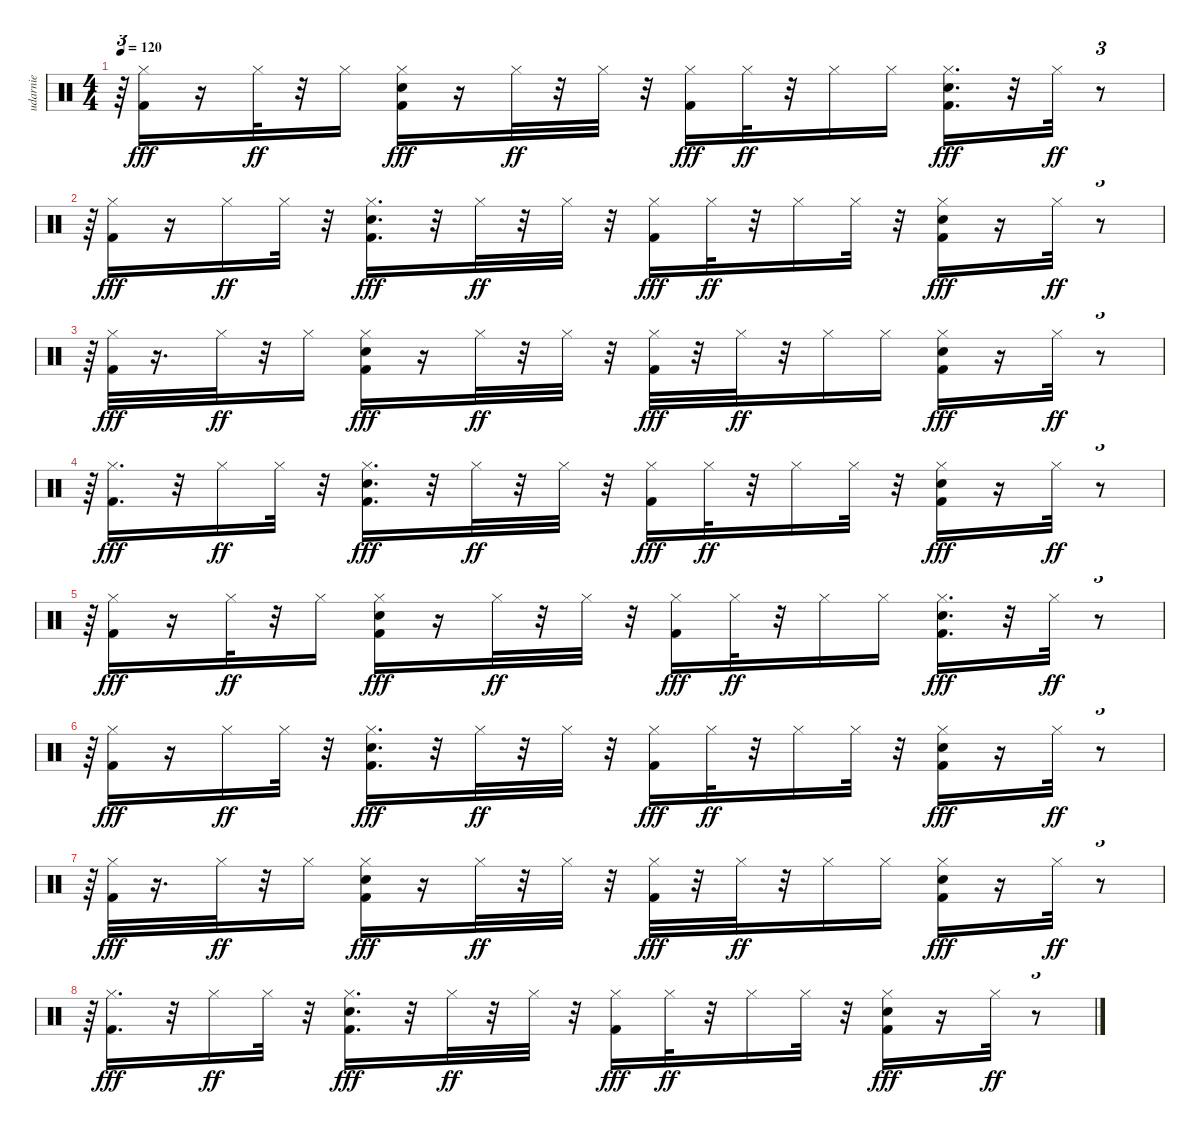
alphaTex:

\track ("udarnie" "udarnie") {instrument percussion}
\staff {score}
\articulation defaults
\ts (4 4)
\tempo 120
\clef neutral
\ks c
r.64{tu (3 2) dy ff} ("Hi-Hat (closed)" "Kick (hit) 2").16{dy fff} r.16 "Hi-Hat (closed)".32{dy ff} r.32 "Hi-Hat (closed)".16 ("Hi-Hat (closed)" "Electric Snare (hit)" "Kick (hit) 2").16{dy fff} r.16 "Hi-Hat (closed)".32{dy ff} r.32 "Hi-Hat (closed)".32 r.32 ("Hi-Hat (closed)" "Kick (hit) 2").16{dy fff} "Hi-Hat (closed)".32{dy ff} r.32 "Hi-Hat (closed)".16 "Hi-Hat (closed)".16 ("Hi-Hat (closed)" "Electric Snare (hit)" "Kick (hit) 2").16{d dy fff} r.32 "Hi-Hat (closed)".32{dy ff} r.8{tu (3 2)} |
r.64{tu (3 2)} ("Hi-Hat (closed)" "Kick (hit) 2").16{dy fff} r.16 "Hi-Hat (closed)".16{dy ff} "Hi-Hat (closed)".32 r.32 ("Hi-Hat (closed)" "Electric Snare (hit)" "Kick (hit) 2").16{d dy fff} r.32 "Hi-Hat (closed)".32{dy ff} r.32 "Hi-Hat (closed)".32 r.32 ("Hi-Hat (closed)" "Kick (hit) 2").16{dy fff} "Hi-Hat (closed)".32{dy ff} r.32 "Hi-Hat (closed)".16 "Hi-Hat (closed)".32 r.32 ("Hi-Hat (closed)" "Electric Snare (hit)" "Kick (hit) 2").16{dy fff} r.16 "Hi-Hat (closed)".32{dy ff} r.8{tu (3 2)} |
r.64{tu (3 2)} ("Hi-Hat (closed)" "Kick (hit) 2").32{dy fff} r.16{d} "Hi-Hat (closed)".32{dy ff} r.32 "Hi-Hat (closed)".16 ("Hi-Hat (closed)" "Electric Snare (hit)" "Kick (hit) 2").16{dy fff} r.16 "Hi-Hat (closed)".32{dy ff} r.32 "Hi-Hat (closed)".32 r.32 ("Hi-Hat (closed)" "Kick (hit) 2").32{dy fff} r.32 "Hi-Hat (closed)".32{dy ff} r.32 "Hi-Hat (closed)".16 "Hi-Hat (closed)".16 ("Hi-Hat (closed)" "Electric Snare (hit)" "Kick (hit) 2").16{dy fff} r.16 "Hi-Hat (closed)".32{dy ff} r.8{tu (3 2)} |
r.64{tu (3 2)} ("Hi-Hat (closed)" "Kick (hit) 2").16{d dy fff} r.32 "Hi-Hat (closed)".16{dy ff} "Hi-Hat (closed)".32 r.32 ("Hi-Hat (closed)" "Electric Snare (hit)" "Kick (hit) 2").16{d dy fff} r.32 "Hi-Hat (closed)".32{dy ff} r.32 "Hi-Hat (closed)".32 r.32 ("Hi-Hat (closed)" "Kick (hit) 2").16{dy fff} "Hi-Hat (closed)".32{dy ff} r.32 "Hi-Hat (closed)".16 "Hi-Hat (closed)".32 r.32 ("Hi-Hat (closed)" "Electric Snare (hit)" "Kick (hit) 2").16{dy fff} r.16 "Hi-Hat (closed)".32{dy ff} r.8{tu (3 2)} |
r.64{tu (3 2)} ("Hi-Hat (closed)" "Kick (hit) 2").16{dy fff} r.16 "Hi-Hat (closed)".32{dy ff} r.32 "Hi-Hat (closed)".16 ("Hi-Hat (closed)" "Electric Snare (hit)" "Kick (hit) 2").16{dy fff} r.16 "Hi-Hat (closed)".32{dy ff} r.32 "Hi-Hat (closed)".32 r.32 ("Hi-Hat (closed)" "Kick (hit) 2").16{dy fff} "Hi-Hat (closed)".32{dy ff} r.32 "Hi-Hat (closed)".16 "Hi-Hat (closed)".16 ("Hi-Hat (closed)" "Electric Snare (hit)" "Kick (hit) 2").16{d dy fff} r.32 "Hi-Hat (closed)".32{dy ff} r.8{tu (3 2)} |
r.64{tu (3 2)} ("Hi-Hat (closed)" "Kick (hit) 2").16{dy fff} r.16 "Hi-Hat (closed)".16{dy ff} "Hi-Hat (closed)".32 r.32 ("Hi-Hat (closed)" "Electric Snare (hit)" "Kick (hit) 2").16{d dy fff} r.32 "Hi-Hat (closed)".32{dy ff} r.32 "Hi-Hat (closed)".32 r.32 ("Hi-Hat (closed)" "Kick (hit) 2").16{dy fff} "Hi-Hat (closed)".32{dy ff} r.32 "Hi-Hat (closed)".16 "Hi-Hat (closed)".32 r.32 ("Hi-Hat (closed)" "Electric Snare (hit)" "Kick (hit) 2").16{dy fff} r.16 "Hi-Hat (closed)".32{dy ff} r.8{tu (3 2)} |
r.64{tu (3 2)} ("Hi-Hat (closed)" "Kick (hit) 2").32{dy fff} r.16{d} "Hi-Hat (closed)".32{dy ff} r.32 "Hi-Hat (closed)".16 ("Hi-Hat (closed)" "Electric Snare (hit)" "Kick (hit) 2").16{dy fff} r.16 "Hi-Hat (closed)".32{dy ff} r.32 "Hi-Hat (closed)".32 r.32 ("Hi-Hat (closed)" "Kick (hit) 2").32{dy fff} r.32 "Hi-Hat (closed)".32{dy ff} r.32 "Hi-Hat (closed)".16 "Hi-Hat (closed)".16 ("Hi-Hat (closed)" "Electric Snare (hit)" "Kick (hit) 2").16{dy fff} r.16 "Hi-Hat (closed)".32{dy ff} r.8{tu (3 2)} |
r.64{tu (3 2)} ("Hi-Hat (closed)" "Kick (hit) 2").16{d dy fff} r.32 "Hi-Hat (closed)".16{dy ff} "Hi-Hat (closed)".32 r.32 ("Hi-Hat (closed)" "Electric Snare (hit)" "Kick (hit) 2").16{d dy fff} r.32 "Hi-Hat (closed)".32{dy ff} r.32 "Hi-Hat (closed)".32 r.32 ("Hi-Hat (closed)" "Kick (hit) 2").16{dy fff} "Hi-Hat (closed)".32{dy ff} r.32 "Hi-Hat (closed)".16 "Hi-Hat (closed)".32 r.32 ("Hi-Hat (closed)" "Electric Snare (hit)" "Kick (hit) 2").16{dy fff} r.16 "Hi-Hat (closed)".32{dy ff} r.8{tu (3 2)}
